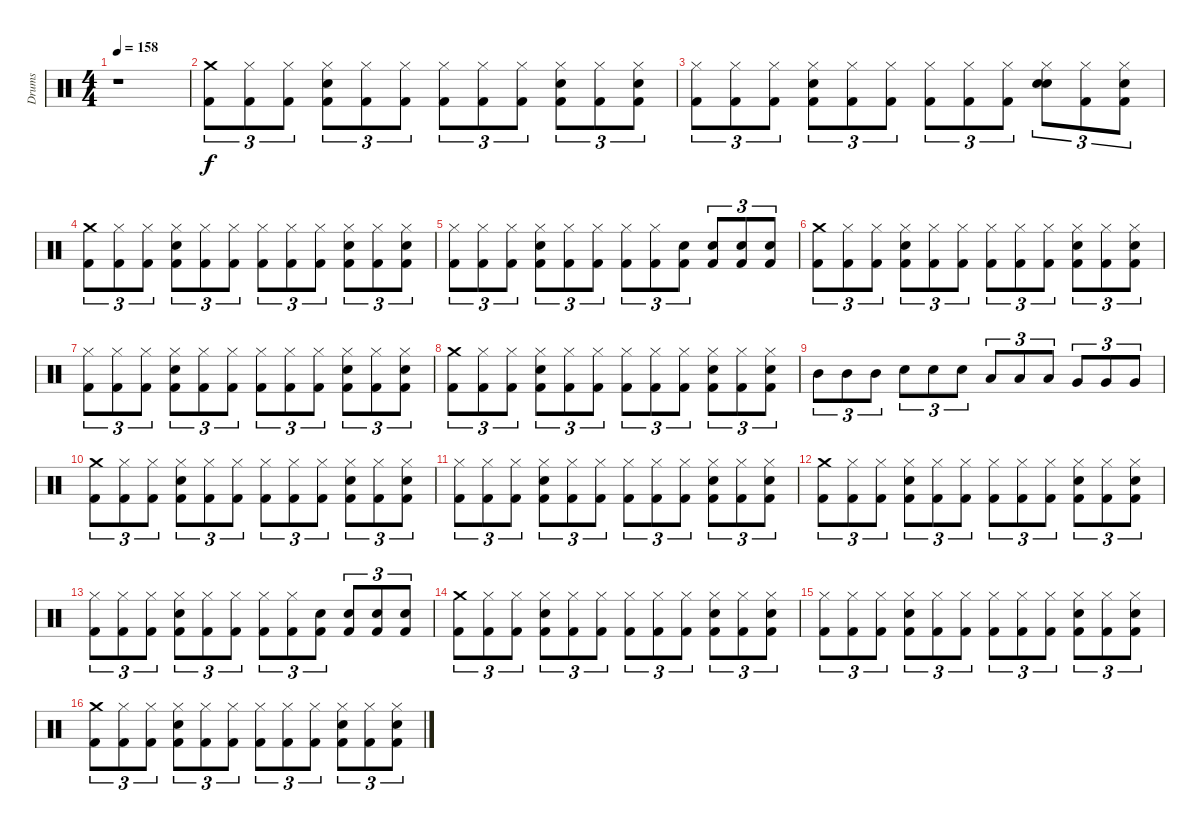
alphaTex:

\track ("Drums" "Drums") {instrument percussion}
\staff {score}
\articulation defaults
\ts (4 4)
\tempo 158
\clef neutral
\ks c
r.1{dy f} |
("Crash medium (hit)" "Kick (hit) 2").8{tu (3 2)} ("Hi-Hat (closed)" "Kick (hit) 2").8{tu (3 2)} ("Hi-Hat (closed)" "Kick (hit) 2").8{tu (3 2)} ("Hi-Hat (closed)" "Electric Snare (hit)" "Kick (hit) 2").8{tu (3 2)} ("Hi-Hat (closed)" "Kick (hit) 2").8{tu (3 2)} ("Hi-Hat (closed)" "Kick (hit) 2").8{tu (3 2)} ("Hi-Hat (closed)" "Kick (hit) 2").8{tu (3 2)} ("Hi-Hat (closed)" "Kick (hit) 2").8{tu (3 2)} ("Hi-Hat (closed)" "Kick (hit) 2").8{tu (3 2)} ("Hi-Hat (closed)" "Electric Snare (hit)" "Kick (hit) 2").8{tu (3 2)} ("Hi-Hat (closed)" "Kick (hit) 2").8{tu (3 2)} ("Hi-Hat (closed)" "Electric Snare (hit)" "Kick (hit) 2").8{tu (3 2)} |
("Hi-Hat (closed)" "Kick (hit) 2").8{tu (3 2)} ("Hi-Hat (closed)" "Kick (hit) 2").8{tu (3 2)} ("Hi-Hat (closed)" "Kick (hit) 2").8{tu (3 2)} ("Hi-Hat (closed)" "Electric Snare (hit)" "Kick (hit) 2").8{tu (3 2)} ("Hi-Hat (closed)" "Kick (hit) 2").8{tu (3 2)} ("Hi-Hat (closed)" "Kick (hit) 2").8{tu (3 2)} ("Hi-Hat (closed)" "Kick (hit) 2").8{tu (3 2)} ("Hi-Hat (closed)" "Kick (hit) 2").8{tu (3 2)} ("Hi-Hat (closed)" "Kick (hit) 2").8{tu (3 2)} ("Hi-Hat (closed)" "Electric Snare (hit)" "Snare (hit)").8{tu (3 2)} ("Hi-Hat (closed)" "Kick (hit) 2").8{tu (3 2)} ("Hi-Hat (closed)" "Electric Snare (hit)" "Kick (hit) 2").8{tu (3 2)} |
("Crash medium (hit)" "Kick (hit) 2").8{tu (3 2)} ("Hi-Hat (closed)" "Kick (hit) 2").8{tu (3 2)} ("Hi-Hat (closed)" "Kick (hit) 2").8{tu (3 2)} ("Hi-Hat (closed)" "Electric Snare (hit)" "Kick (hit) 2").8{tu (3 2)} ("Hi-Hat (closed)" "Kick (hit) 2").8{tu (3 2)} ("Hi-Hat (closed)" "Kick (hit) 2").8{tu (3 2)} ("Hi-Hat (closed)" "Kick (hit) 2").8{tu (3 2)} ("Hi-Hat (closed)" "Kick (hit) 2").8{tu (3 2)} ("Hi-Hat (closed)" "Kick (hit) 2").8{tu (3 2)} ("Hi-Hat (closed)" "Electric Snare (hit)" "Kick (hit) 2").8{tu (3 2)} ("Hi-Hat (closed)" "Kick (hit) 2").8{tu (3 2)} ("Hi-Hat (closed)" "Electric Snare (hit)" "Kick (hit) 2").8{tu (3 2)} |
("Hi-Hat (closed)" "Kick (hit) 2").8{tu (3 2)} ("Hi-Hat (closed)" "Kick (hit) 2").8{tu (3 2)} ("Hi-Hat (closed)" "Kick (hit) 2").8{tu (3 2)} ("Hi-Hat (closed)" "Electric Snare (hit)" "Kick (hit) 2").8{tu (3 2)} ("Hi-Hat (closed)" "Kick (hit) 2").8{tu (3 2)} ("Hi-Hat (closed)" "Kick (hit) 2").8{tu (3 2)} ("Hi-Hat (closed)" "Kick (hit) 2").8{tu (3 2)} ("Hi-Hat (closed)" "Kick (hit) 2").8{tu (3 2)} ("Electric Snare (hit)" "Kick (hit) 2").8{tu (3 2)} ("Electric Snare (hit)" "Kick (hit) 2").8{tu (3 2)} ("Electric Snare (hit)" "Kick (hit) 2").8{tu (3 2)} ("Electric Snare (hit)" "Kick (hit) 2").8{tu (3 2)} |
("Crash medium (hit)" "Kick (hit) 2").8{tu (3 2)} ("Hi-Hat (closed)" "Kick (hit) 2").8{tu (3 2)} ("Hi-Hat (closed)" "Kick (hit) 2").8{tu (3 2)} ("Hi-Hat (closed)" "Electric Snare (hit)" "Kick (hit) 2").8{tu (3 2)} ("Hi-Hat (closed)" "Kick (hit) 2").8{tu (3 2)} ("Hi-Hat (closed)" "Kick (hit) 2").8{tu (3 2)} ("Hi-Hat (closed)" "Kick (hit) 2").8{tu (3 2)} ("Hi-Hat (closed)" "Kick (hit) 2").8{tu (3 2)} ("Hi-Hat (closed)" "Kick (hit) 2").8{tu (3 2)} ("Hi-Hat (closed)" "Electric Snare (hit)" "Kick (hit) 2").8{tu (3 2)} ("Hi-Hat (closed)" "Kick (hit) 2").8{tu (3 2)} ("Hi-Hat (closed)" "Electric Snare (hit)" "Kick (hit) 2").8{tu (3 2)} |
("Hi-Hat (closed)" "Kick (hit) 2").8{tu (3 2)} ("Hi-Hat (closed)" "Kick (hit) 2").8{tu (3 2)} ("Hi-Hat (closed)" "Kick (hit) 2").8{tu (3 2)} ("Hi-Hat (closed)" "Electric Snare (hit)" "Kick (hit) 2").8{tu (3 2)} ("Hi-Hat (closed)" "Kick (hit) 2").8{tu (3 2)} ("Hi-Hat (closed)" "Kick (hit) 2").8{tu (3 2)} ("Hi-Hat (closed)" "Kick (hit) 2").8{tu (3 2)} ("Hi-Hat (closed)" "Kick (hit) 2").8{tu (3 2)} ("Hi-Hat (closed)" "Kick (hit) 2").8{tu (3 2)} ("Hi-Hat (closed)" "Electric Snare (hit)" "Kick (hit) 2").8{tu (3 2)} ("Hi-Hat (closed)" "Kick (hit) 2").8{tu (3 2)} ("Hi-Hat (closed)" "Electric Snare (hit)" "Kick (hit) 2").8{tu (3 2)} |
("Crash medium (hit)" "Kick (hit) 2").8{tu (3 2)} ("Hi-Hat (closed)" "Kick (hit) 2").8{tu (3 2)} ("Hi-Hat (closed)" "Kick (hit) 2").8{tu (3 2)} ("Hi-Hat (closed)" "Electric Snare (hit)" "Kick (hit) 2").8{tu (3 2)} ("Hi-Hat (closed)" "Kick (hit) 2").8{tu (3 2)} ("Hi-Hat (closed)" "Kick (hit) 2").8{tu (3 2)} ("Hi-Hat (closed)" "Kick (hit) 2").8{tu (3 2)} ("Hi-Hat (closed)" "Kick (hit) 2").8{tu (3 2)} ("Hi-Hat (closed)" "Kick (hit) 2").8{tu (3 2)} ("Hi-Hat (closed)" "Electric Snare (hit)" "Kick (hit) 2").8{tu (3 2)} ("Hi-Hat (closed)" "Kick (hit) 2").8{tu (3 2)} ("Hi-Hat (closed)" "Electric Snare (hit)" "Kick (hit) 2").8{tu (3 2)} |
"Mid Tom (hit)".8{tu (3 2)} "Mid Tom (hit)".8{tu (3 2)} "Mid Tom (hit)".8{tu (3 2)} "Electric Snare (hit)".8{tu (3 2)} "Electric Snare (hit)".8{tu (3 2)} "Electric Snare (hit)".8{tu (3 2)} "Low Tom (hit)".8{tu (3 2)} "Low Tom (hit)".8{tu (3 2)} "Low Tom (hit)".8{tu (3 2)} "Very Low Tom (hit)".8{tu (3 2)} "Very Low Tom (hit)".8{tu (3 2)} "Very Low Tom (hit)".8{tu (3 2)} |
("Crash medium (hit)" "Kick (hit) 2").8{tu (3 2)} ("Hi-Hat (closed)" "Kick (hit) 2").8{tu (3 2)} ("Hi-Hat (closed)" "Kick (hit) 2").8{tu (3 2)} ("Hi-Hat (closed)" "Electric Snare (hit)" "Kick (hit) 2").8{tu (3 2)} ("Hi-Hat (closed)" "Kick (hit) 2").8{tu (3 2)} ("Hi-Hat (closed)" "Kick (hit) 2").8{tu (3 2)} ("Hi-Hat (closed)" "Kick (hit) 2").8{tu (3 2)} ("Hi-Hat (closed)" "Kick (hit) 2").8{tu (3 2)} ("Hi-Hat (closed)" "Kick (hit) 2").8{tu (3 2)} ("Hi-Hat (closed)" "Electric Snare (hit)" "Kick (hit) 2").8{tu (3 2)} ("Hi-Hat (closed)" "Kick (hit) 2").8{tu (3 2)} ("Hi-Hat (closed)" "Electric Snare (hit)" "Kick (hit) 2").8{tu (3 2)} |
("Hi-Hat (closed)" "Kick (hit) 2").8{tu (3 2)} ("Hi-Hat (closed)" "Kick (hit) 2").8{tu (3 2)} ("Hi-Hat (closed)" "Kick (hit) 2").8{tu (3 2)} ("Hi-Hat (closed)" "Electric Snare (hit)" "Kick (hit) 2").8{tu (3 2)} ("Hi-Hat (closed)" "Kick (hit) 2").8{tu (3 2)} ("Hi-Hat (closed)" "Kick (hit) 2").8{tu (3 2)} ("Hi-Hat (closed)" "Kick (hit) 2").8{tu (3 2)} ("Hi-Hat (closed)" "Kick (hit) 2").8{tu (3 2)} ("Hi-Hat (closed)" "Kick (hit) 2").8{tu (3 2)} ("Hi-Hat (closed)" "Electric Snare (hit)" "Kick (hit) 2").8{tu (3 2)} ("Hi-Hat (closed)" "Kick (hit) 2").8{tu (3 2)} ("Hi-Hat (closed)" "Electric Snare (hit)" "Kick (hit) 2").8{tu (3 2)} |
("Crash medium (hit)" "Kick (hit) 2").8{tu (3 2)} ("Hi-Hat (closed)" "Kick (hit) 2").8{tu (3 2)} ("Hi-Hat (closed)" "Kick (hit) 2").8{tu (3 2)} ("Hi-Hat (closed)" "Electric Snare (hit)" "Kick (hit) 2").8{tu (3 2)} ("Hi-Hat (closed)" "Kick (hit) 2").8{tu (3 2)} ("Hi-Hat (closed)" "Kick (hit) 2").8{tu (3 2)} ("Hi-Hat (closed)" "Kick (hit) 2").8{tu (3 2)} ("Hi-Hat (closed)" "Kick (hit) 2").8{tu (3 2)} ("Hi-Hat (closed)" "Kick (hit) 2").8{tu (3 2)} ("Hi-Hat (closed)" "Electric Snare (hit)" "Kick (hit) 2").8{tu (3 2)} ("Hi-Hat (closed)" "Kick (hit) 2").8{tu (3 2)} ("Hi-Hat (closed)" "Electric Snare (hit)" "Kick (hit) 2").8{tu (3 2)} |
("Hi-Hat (closed)" "Kick (hit) 2").8{tu (3 2)} ("Hi-Hat (closed)" "Kick (hit) 2").8{tu (3 2)} ("Hi-Hat (closed)" "Kick (hit) 2").8{tu (3 2)} ("Hi-Hat (closed)" "Electric Snare (hit)" "Kick (hit) 2").8{tu (3 2)} ("Hi-Hat (closed)" "Kick (hit) 2").8{tu (3 2)} ("Hi-Hat (closed)" "Kick (hit) 2").8{tu (3 2)} ("Hi-Hat (closed)" "Kick (hit) 2").8{tu (3 2)} ("Hi-Hat (closed)" "Kick (hit) 2").8{tu (3 2)} ("Electric Snare (hit)" "Kick (hit) 2").8{tu (3 2)} ("Electric Snare (hit)" "Kick (hit) 2").8{tu (3 2)} ("Electric Snare (hit)" "Kick (hit) 2").8{tu (3 2)} ("Electric Snare (hit)" "Kick (hit) 2").8{tu (3 2)} |
("Crash medium (hit)" "Kick (hit) 2").8{tu (3 2)} ("Hi-Hat (closed)" "Kick (hit) 2").8{tu (3 2)} ("Hi-Hat (closed)" "Kick (hit) 2").8{tu (3 2)} ("Hi-Hat (closed)" "Electric Snare (hit)" "Kick (hit) 2").8{tu (3 2)} ("Hi-Hat (closed)" "Kick (hit) 2").8{tu (3 2)} ("Hi-Hat (closed)" "Kick (hit) 2").8{tu (3 2)} ("Hi-Hat (closed)" "Kick (hit) 2").8{tu (3 2)} ("Hi-Hat (closed)" "Kick (hit) 2").8{tu (3 2)} ("Hi-Hat (closed)" "Kick (hit) 2").8{tu (3 2)} ("Hi-Hat (closed)" "Electric Snare (hit)" "Kick (hit) 2").8{tu (3 2)} ("Hi-Hat (closed)" "Kick (hit) 2").8{tu (3 2)} ("Hi-Hat (closed)" "Electric Snare (hit)" "Kick (hit) 2").8{tu (3 2)} |
("Hi-Hat (closed)" "Kick (hit) 2").8{tu (3 2)} ("Hi-Hat (closed)" "Kick (hit) 2").8{tu (3 2)} ("Hi-Hat (closed)" "Kick (hit) 2").8{tu (3 2)} ("Hi-Hat (closed)" "Electric Snare (hit)" "Kick (hit) 2").8{tu (3 2)} ("Hi-Hat (closed)" "Kick (hit) 2").8{tu (3 2)} ("Hi-Hat (closed)" "Kick (hit) 2").8{tu (3 2)} ("Hi-Hat (closed)" "Kick (hit) 2").8{tu (3 2)} ("Hi-Hat (closed)" "Kick (hit) 2").8{tu (3 2)} ("Hi-Hat (closed)" "Kick (hit) 2").8{tu (3 2)} ("Hi-Hat (closed)" "Electric Snare (hit)" "Kick (hit) 2").8{tu (3 2)} ("Hi-Hat (closed)" "Kick (hit) 2").8{tu (3 2)} ("Hi-Hat (closed)" "Electric Snare (hit)" "Kick (hit) 2").8{tu (3 2)} |
("Crash medium (hit)" "Kick (hit) 2").8{tu (3 2)} ("Hi-Hat (closed)" "Kick (hit) 2").8{tu (3 2)} ("Hi-Hat (closed)" "Kick (hit) 2").8{tu (3 2)} ("Hi-Hat (closed)" "Electric Snare (hit)" "Kick (hit) 2").8{tu (3 2)} ("Hi-Hat (closed)" "Kick (hit) 2").8{tu (3 2)} ("Hi-Hat (closed)" "Kick (hit) 2").8{tu (3 2)} ("Hi-Hat (closed)" "Kick (hit) 2").8{tu (3 2)} ("Hi-Hat (closed)" "Kick (hit) 2").8{tu (3 2)} ("Hi-Hat (closed)" "Kick (hit) 2").8{tu (3 2)} ("Hi-Hat (closed)" "Electric Snare (hit)" "Kick (hit) 2").8{tu (3 2)} ("Hi-Hat (closed)" "Kick (hit) 2").8{tu (3 2)} ("Hi-Hat (closed)" "Electric Snare (hit)" "Kick (hit) 2").8{tu (3 2)}
